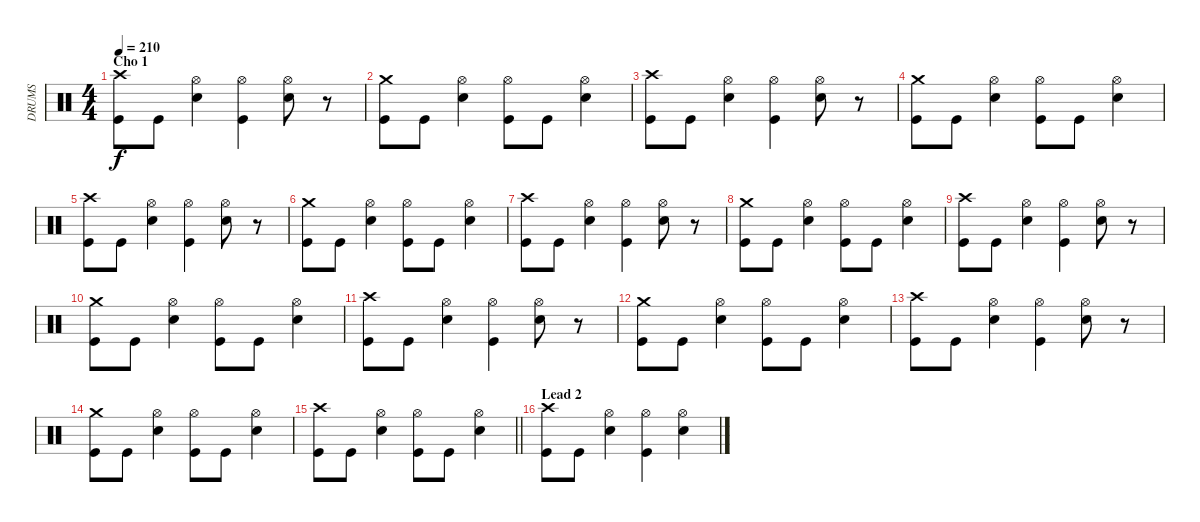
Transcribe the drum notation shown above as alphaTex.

\track ("DRUMS" "DRUMS") {instrument percussion}
\staff {score}
\articulation defaults
\ts (4 4)
\section ("" "Cho 1")
\tempo 210
\clef neutral
\ks c
("Crash high (hit)" "Kick (hit)").8{dy f} "Kick (hit)".8 ("Hi-Hat (open)" "Snare (hit) 2").4 ("Hi-Hat (open)" "Kick (hit)").4 ("Hi-Hat (open)" "Snare (hit) 2").8 r.8 |
("Crash medium (hit)" "Kick (hit)").8 "Kick (hit)".8 ("Hi-Hat (open)" "Snare (hit) 2").4 ("Hi-Hat (open)" "Kick (hit)").8 "Kick (hit)".8 ("Hi-Hat (open)" "Snare (hit) 2").4 |
("Crash high (hit)" "Kick (hit)").8 "Kick (hit)".8 ("Hi-Hat (open)" "Snare (hit) 2").4 ("Hi-Hat (open)" "Kick (hit)").4 ("Hi-Hat (open)" "Snare (hit) 2").8 r.8 |
("Crash medium (hit)" "Kick (hit)").8 "Kick (hit)".8 ("Hi-Hat (open)" "Snare (hit) 2").4 ("Hi-Hat (open)" "Kick (hit)").8 "Kick (hit)".8 ("Hi-Hat (open)" "Snare (hit) 2").4 |
("Crash high (hit)" "Kick (hit)").8 "Kick (hit)".8 ("Hi-Hat (open)" "Snare (hit) 2").4 ("Hi-Hat (open)" "Kick (hit)").4 ("Hi-Hat (open)" "Snare (hit) 2").8 r.8 |
("Crash medium (hit)" "Kick (hit)").8 "Kick (hit)".8 ("Hi-Hat (open)" "Snare (hit) 2").4 ("Hi-Hat (open)" "Kick (hit)").8 "Kick (hit)".8 ("Hi-Hat (open)" "Snare (hit) 2").4 |
("Crash high (hit)" "Kick (hit)").8 "Kick (hit)".8 ("Hi-Hat (open)" "Snare (hit) 2").4 ("Hi-Hat (open)" "Kick (hit)").4 ("Hi-Hat (open)" "Snare (hit) 2").8 r.8 |
("Crash medium (hit)" "Kick (hit)").8 "Kick (hit)".8 ("Hi-Hat (open)" "Snare (hit) 2").4 ("Hi-Hat (open)" "Kick (hit)").8 "Kick (hit)".8 ("Hi-Hat (open)" "Snare (hit) 2").4 |
("Crash high (hit)" "Kick (hit)").8 "Kick (hit)".8 ("Hi-Hat (open)" "Snare (hit) 2").4 ("Hi-Hat (open)" "Kick (hit)").4 ("Hi-Hat (open)" "Snare (hit) 2").8 r.8 |
("Crash medium (hit)" "Kick (hit)").8 "Kick (hit)".8 ("Hi-Hat (open)" "Snare (hit) 2").4 ("Hi-Hat (open)" "Kick (hit)").8 "Kick (hit)".8 ("Hi-Hat (open)" "Snare (hit) 2").4 |
("Crash high (hit)" "Kick (hit)").8 "Kick (hit)".8 ("Hi-Hat (open)" "Snare (hit) 2").4 ("Hi-Hat (open)" "Kick (hit)").4 ("Hi-Hat (open)" "Snare (hit) 2").8 r.8 |
("Crash medium (hit)" "Kick (hit)").8 "Kick (hit)".8 ("Hi-Hat (open)" "Snare (hit) 2").4 ("Hi-Hat (open)" "Kick (hit)").8 "Kick (hit)".8 ("Hi-Hat (open)" "Snare (hit) 2").4 |
("Crash high (hit)" "Kick (hit)").8 "Kick (hit)".8 ("Hi-Hat (open)" "Snare (hit) 2").4 ("Hi-Hat (open)" "Kick (hit)").4 ("Hi-Hat (open)" "Snare (hit) 2").8 r.8 |
("Crash medium (hit)" "Kick (hit)").8 "Kick (hit)".8 ("Hi-Hat (open)" "Snare (hit) 2").4 ("Hi-Hat (open)" "Kick (hit)").8 "Kick (hit)".8 ("Hi-Hat (open)" "Snare (hit) 2").4 |
\barLineRight lightlight
("Crash high (hit)" "Kick (hit)").8 "Kick (hit)".8 ("Hi-Hat (open)" "Snare (hit) 2").4 ("Hi-Hat (open)" "Kick (hit)").8 "Kick (hit)".8 ("Hi-Hat (open)" "Snare (hit) 2").4 |
\section ("" "Lead 2")
("Crash high (hit)" "Kick (hit)").8 "Kick (hit)".8 ("Hi-Hat (open)" "Snare (hit) 2").4 ("Hi-Hat (open)" "Kick (hit)").4 ("Hi-Hat (open)" "Snare (hit) 2").4
